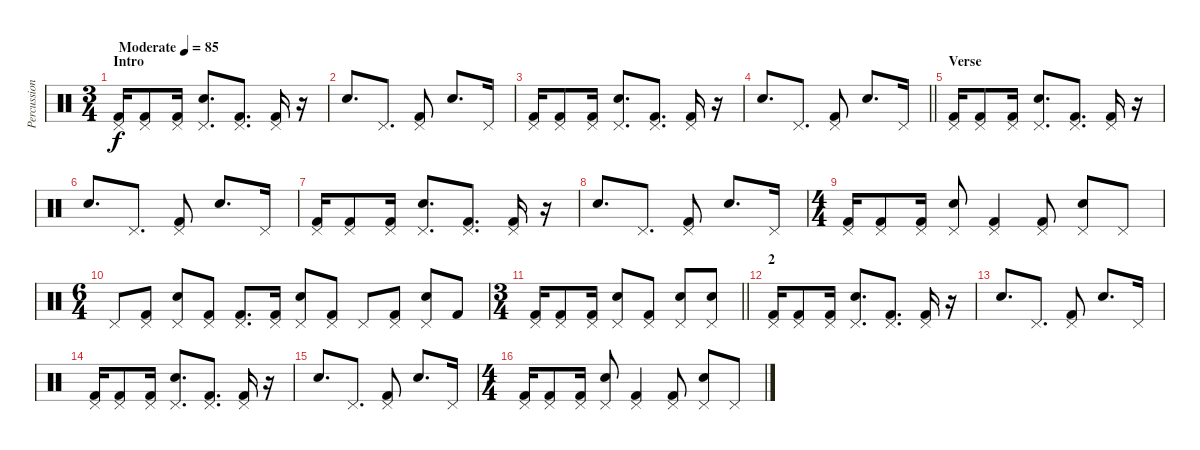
\track ("Percussion (N. Sanderson)" "Percussion") {instrument percussion}
\staff {score}
\articulation defaults
\ts (3 4)
\section ("" "Intro")
\tempo (85 "Moderate")
\clef neutral
\ks c
("Pedal Hi-Hat (hit)" "Kick (hit) 2").16{dy f} ("Pedal Hi-Hat (hit)" "Kick (hit) 2").8 ("Pedal Hi-Hat (hit)" "Kick (hit) 2").16 ("Pedal Hi-Hat (hit)" "Electric Snare (hit)").8{d} ("Pedal Hi-Hat (hit)" "Kick (hit) 2").8{d} ("Pedal Hi-Hat (hit)" "Kick (hit) 2").16 r.16 |
"Electric Snare (hit)".8{d} "Pedal Hi-Hat (hit)".8{d} ("Pedal Hi-Hat (hit)" "Kick (hit) 2").8 "Electric Snare (hit)".8{d} "Pedal Hi-Hat (hit)".16 |
("Pedal Hi-Hat (hit)" "Kick (hit) 2").16 ("Pedal Hi-Hat (hit)" "Kick (hit) 2").8 ("Pedal Hi-Hat (hit)" "Kick (hit) 2").16 ("Pedal Hi-Hat (hit)" "Electric Snare (hit)").8{d} ("Pedal Hi-Hat (hit)" "Kick (hit) 2").8{d} ("Pedal Hi-Hat (hit)" "Kick (hit) 2").16 r.16 |
\barLineRight lightlight "Electric Snare (hit)".8{d} "Pedal Hi-Hat (hit)".8{d}
("Pedal Hi-Hat (hit)" "Kick (hit) 2").8 "Electric Snare (hit)".8{d} "Pedal Hi-Hat (hit)".16 |
\section ("" "Verse")
("Pedal Hi-Hat (hit)" "Kick (hit) 2").16 ("Pedal Hi-Hat (hit)" "Kick (hit) 2").8 ("Pedal Hi-Hat (hit)" "Kick (hit) 2").16 ("Pedal Hi-Hat (hit)" "Electric Snare (hit)").8{d} ("Pedal Hi-Hat (hit)" "Kick (hit) 2").8{d} ("Pedal Hi-Hat (hit)" "Kick (hit) 2").16 r.16 |
"Electric Snare (hit)".8{d} "Pedal Hi-Hat (hit)".8{d} ("Pedal Hi-Hat (hit)" "Kick (hit) 2").8 "Electric Snare (hit)".8{d} "Pedal Hi-Hat (hit)".16 |
("Pedal Hi-Hat (hit)" "Kick (hit) 2").16 ("Pedal Hi-Hat (hit)" "Kick (hit) 2").8 ("Pedal Hi-Hat (hit)" "Kick (hit) 2").16 ("Pedal Hi-Hat (hit)" "Electric Snare (hit)").8{d} ("Pedal Hi-Hat (hit)" "Kick (hit) 2").8{d} ("Pedal Hi-Hat (hit)" "Kick (hit) 2").16 r.16 |
"Electric Snare (hit)".8{d} "Pedal Hi-Hat (hit)".8{d} ("Pedal Hi-Hat (hit)" "Kick (hit) 2").8 "Electric Snare (hit)".8{d} "Pedal Hi-Hat (hit)".16 |
\ts (4 4)
("Pedal Hi-Hat (hit)" "Kick (hit) 2").16 ("Pedal Hi-Hat (hit)" "Kick (hit) 2").8 ("Pedal Hi-Hat (hit)" "Kick (hit) 2").16 ("Pedal Hi-Hat (hit)" "Electric Snare (hit)").8 ("Pedal Hi-Hat (hit)" "Kick (hit) 2").4 ("Pedal Hi-Hat (hit)" "Kick (hit) 2").8 ("Pedal Hi-Hat (hit)" "Electric Snare (hit)").8 "Pedal Hi-Hat (hit)".8 |
\ts (6 4)
"Pedal Hi-Hat (hit)".8 ("Pedal Hi-Hat (hit)" "Kick (hit) 2").8 ("Pedal Hi-Hat (hit)" "Electric Snare (hit)").8 ("Pedal Hi-Hat (hit)" "Kick (hit) 2").8 ("Pedal Hi-Hat (hit)" "Kick (hit) 2").8{d} ("Pedal Hi-Hat (hit)" "Kick (hit) 2").16 ("Pedal Hi-Hat (hit)" "Electric Snare (hit)").8 ("Pedal Hi-Hat (hit)" "Kick (hit) 2").8 "Pedal Hi-Hat (hit)".8 ("Pedal Hi-Hat (hit)" "Kick (hit) 2").8 ("Pedal Hi-Hat (hit)" "Electric Snare (hit)").8 "Kick (hit) 2".8 |
\ts (3 4)
\barLineRight lightlight
("Pedal Hi-Hat (hit)" "Kick (hit) 2").16 ("Pedal Hi-Hat (hit)" "Kick (hit) 2").8 ("Pedal Hi-Hat (hit)" "Kick (hit) 2").16 ("Pedal Hi-Hat (hit)" "Electric Snare (hit)").8 ("Pedal Hi-Hat (hit)" "Kick (hit) 2").8 ("Pedal Hi-Hat (hit)" "Electric Snare (hit)").8 ("Pedal Hi-Hat (hit)" "Electric Snare (hit)").8 |
\section ("" "2")
("Pedal Hi-Hat (hit)" "Kick (hit) 2").16 ("Pedal Hi-Hat (hit)" "Kick (hit) 2").8 ("Pedal Hi-Hat (hit)" "Kick (hit) 2").16 ("Pedal Hi-Hat (hit)" "Electric Snare (hit)").8{d} ("Pedal Hi-Hat (hit)" "Kick (hit) 2").8{d} ("Pedal Hi-Hat (hit)" "Kick (hit) 2").16 r.16 |
"Electric Snare (hit)".8{d} "Pedal Hi-Hat (hit)".8{d} ("Pedal Hi-Hat (hit)" "Kick (hit) 2").8 "Electric Snare (hit)".8{d} "Pedal Hi-Hat (hit)".16 |
("Pedal Hi-Hat (hit)" "Kick (hit) 2").16 ("Pedal Hi-Hat (hit)" "Kick (hit) 2").8 ("Pedal Hi-Hat (hit)" "Kick (hit) 2").16 ("Pedal Hi-Hat (hit)" "Electric Snare (hit)").8{d} ("Pedal Hi-Hat (hit)" "Kick (hit) 2").8{d} ("Pedal Hi-Hat (hit)" "Kick (hit) 2").16 r.16 |
"Electric Snare (hit)".8{d} "Pedal Hi-Hat (hit)".8{d} ("Pedal Hi-Hat (hit)" "Kick (hit) 2").8 "Electric Snare (hit)".8{d} "Pedal Hi-Hat (hit)".16 |
\ts (4 4)
("Pedal Hi-Hat (hit)" "Kick (hit) 2").16 ("Pedal Hi-Hat (hit)" "Kick (hit) 2").8 ("Pedal Hi-Hat (hit)" "Kick (hit) 2").16 ("Pedal Hi-Hat (hit)" "Electric Snare (hit)").8 ("Pedal Hi-Hat (hit)" "Kick (hit) 2").4 ("Pedal Hi-Hat (hit)" "Kick (hit) 2").8 ("Pedal Hi-Hat (hit)" "Electric Snare (hit)").8 "Pedal Hi-Hat (hit)".8
